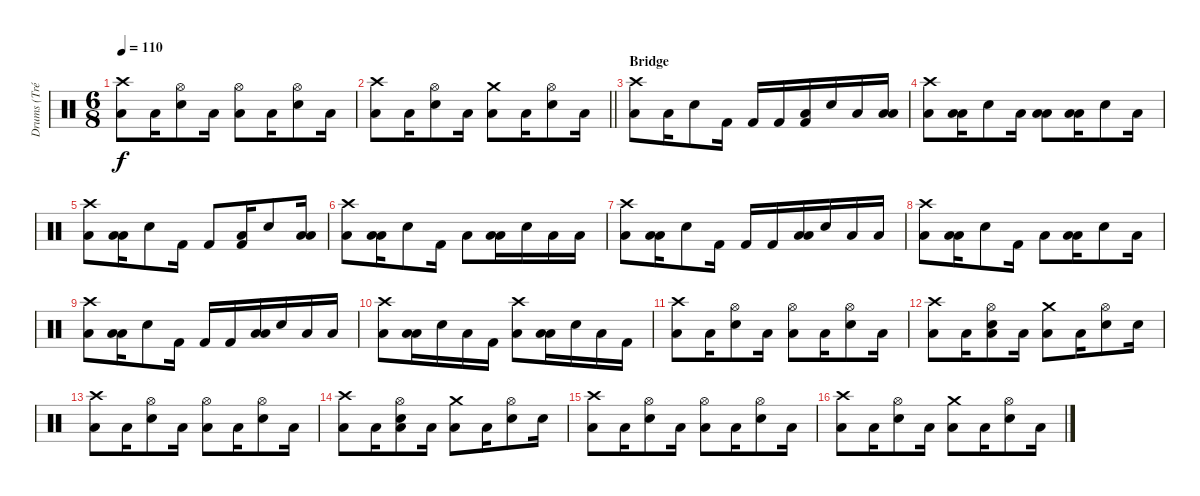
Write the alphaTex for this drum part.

\track ("Drums (Tré Cool)" "Drums (Tré") {instrument percussion}
\staff {score}
\articulation defaults
\ts (6 8)
\tempo 110
\clef neutral
\ks c
("Crash high (hit)" "Low Floor Tom (hit)").8{dy f} "Low Floor Tom (hit)".16 ("Hi-Hat (open)" "Electric Snare (hit)").8 "Low Floor Tom (hit)".16 ("Hi-Hat (open)" "Low Floor Tom (hit)").8 "Low Floor Tom (hit)".16 ("Hi-Hat (open)" "Electric Snare (hit)").8 "Low Floor Tom (hit)".16 |
\barLineRight lightlight
("Crash high (hit)" "Low Floor Tom (hit)").8 "Low Floor Tom (hit)".16 ("Hi-Hat (open)" "Electric Snare (hit)").8 "Low Floor Tom (hit)".16 ("Crash medium (hit)" "Low Floor Tom (hit)").8 "Low Floor Tom (hit)".16 ("Hi-Hat (open)" "Electric Snare (hit)").8 "Low Floor Tom (hit)".16 |
\section ("" "Bridge")
("Crash high (hit)" "Low Floor Tom (hit)").8 "Low Floor Tom (hit)".16 "Electric Snare (hit)".8 "Kick (hit) 2".16 "Kick (hit) 2".16 "Kick (hit) 2".16 ("Kick (hit) 2" "Low Floor Tom (hit)").16 "Electric Snare (hit)".16 "Low Tom (hit)".16 ("Low Tom (hit)" "Low Floor Tom (hit)").16 |
("Crash high (hit)" "Low Floor Tom (hit)").8 ("Low Tom (hit)" "Low Floor Tom (hit)").16 "Electric Snare (hit)".8 "Low Tom (hit)".16 ("Low Tom (hit)" "Low Floor Tom (hit)").8 ("Low Tom (hit)" "Low Floor Tom (hit)").16 "Electric Snare (hit)".8 "Low Tom (hit)".16 |
("Crash high (hit)" "Low Floor Tom (hit)").8 ("Low Tom (hit)" "Low Floor Tom (hit)").16 "Electric Snare (hit)".8 "Kick (hit) 2".16 "Kick (hit) 2".8 ("Kick (hit) 2" "Low Floor Tom (hit)").16 "Electric Snare (hit)".8 ("Low Tom (hit)" "Low Floor Tom (hit)").16 |
("Crash high (hit)" "Low Floor Tom (hit)").8 ("Low Tom (hit)" "Low Floor Tom (hit)").16 "Electric Snare (hit)".8 "Kick (hit) 2".16 "Low Tom (hit)".8 ("Low Tom (hit)" "Low Floor Tom (hit)").16 "Electric Snare (hit)".16 "Low Tom (hit)".16 "Low Tom (hit)".16 |
("Crash high (hit)" "Low Floor Tom (hit)").8 ("Low Tom (hit)" "Low Floor Tom (hit)").16 "Electric Snare (hit)".8 "Kick (hit) 2".16 "Kick (hit) 2".16 "Kick (hit) 2".16 ("Low Tom (hit)" "Low Floor Tom (hit)").16 "Electric Snare (hit)".16 "Low Tom (hit)".16 "Low Tom (hit)".16 |
("Crash high (hit)" "Low Floor Tom (hit)").8 ("Low Tom (hit)" "Low Floor Tom (hit)").16 "Electric Snare (hit)".8 "Kick (hit) 2".16 "Low Tom (hit)".8 ("Low Tom (hit)" "Low Floor Tom (hit)").16 "Electric Snare (hit)".8 "Low Tom (hit)".16 |
("Crash high (hit)" "Low Floor Tom (hit)").8 ("Low Tom (hit)" "Low Floor Tom (hit)").16 "Electric Snare (hit)".8 "Kick (hit) 2".16 "Kick (hit) 2".16 "Kick (hit) 2".16 ("Low Tom (hit)" "Low Floor Tom (hit)").16 "Electric Snare (hit)".16 "Low Tom (hit)".16 "Low Tom (hit)".16 |
("Crash high (hit)" "Low Floor Tom (hit)").8 ("Low Tom (hit)" "Low Floor Tom (hit)").16 "Electric Snare (hit)".16 "Low Tom (hit)".16 "Kick (hit) 2".16 ("Crash high (hit)" "Low Floor Tom (hit)").8 ("Low Tom (hit)" "Low Floor Tom (hit)").16 "Electric Snare (hit)".16 "Low Tom (hit)".16 "Kick (hit) 2".16 |
("Crash high (hit)" "Low Floor Tom (hit)").8 "Low Floor Tom (hit)".16 ("Hi-Hat (open)" "Electric Snare (hit)").8 "Low Floor Tom (hit)".16 ("Hi-Hat (open)" "Low Floor Tom (hit)").8 "Low Floor Tom (hit)".16 ("Hi-Hat (open)" "Electric Snare (hit)").8 "Low Floor Tom (hit)".16 |
("Crash high (hit)" "Low Floor Tom (hit)").8 "Low Floor Tom (hit)".16 ("Hi-Hat (open)" "Electric Snare (hit)" "Low Floor Tom (hit)").8 "Low Floor Tom (hit)".16 ("Crash medium (hit)" "Low Floor Tom (hit)").8 "Low Floor Tom (hit)".16 ("Hi-Hat (open)" "Electric Snare (hit)").8 "Electric Snare (hit)".16 |
("Crash high (hit)" "Low Floor Tom (hit)").8 "Low Floor Tom (hit)".16 ("Hi-Hat (open)" "Electric Snare (hit)").8 "Low Floor Tom (hit)".16 ("Hi-Hat (open)" "Low Floor Tom (hit)").8 "Low Floor Tom (hit)".16 ("Hi-Hat (open)" "Electric Snare (hit)").8 "Low Floor Tom (hit)".16 |
("Crash high (hit)" "Low Floor Tom (hit)").8 "Low Floor Tom (hit)".16 ("Hi-Hat (open)" "Electric Snare (hit)" "Low Floor Tom (hit)").8 "Low Floor Tom (hit)".16 ("Crash medium (hit)" "Low Floor Tom (hit)").8 "Low Floor Tom (hit)".16 ("Hi-Hat (open)" "Electric Snare (hit)").8 "Electric Snare (hit)".16 |
("Crash high (hit)" "Low Floor Tom (hit)").8 "Low Floor Tom (hit)".16 ("Hi-Hat (open)" "Electric Snare (hit)").8 "Low Floor Tom (hit)".16 ("Hi-Hat (open)" "Low Floor Tom (hit)").8 "Low Floor Tom (hit)".16 ("Hi-Hat (open)" "Electric Snare (hit)").8 "Low Floor Tom (hit)".16 |
("Crash high (hit)" "Low Floor Tom (hit)").8 "Low Floor Tom (hit)".16 ("Hi-Hat (open)" "Electric Snare (hit)").8 "Low Floor Tom (hit)".16 ("Crash medium (hit)" "Low Floor Tom (hit)").8 "Low Floor Tom (hit)".16 ("Hi-Hat (open)" "Electric Snare (hit)").8 "Low Floor Tom (hit)".16
